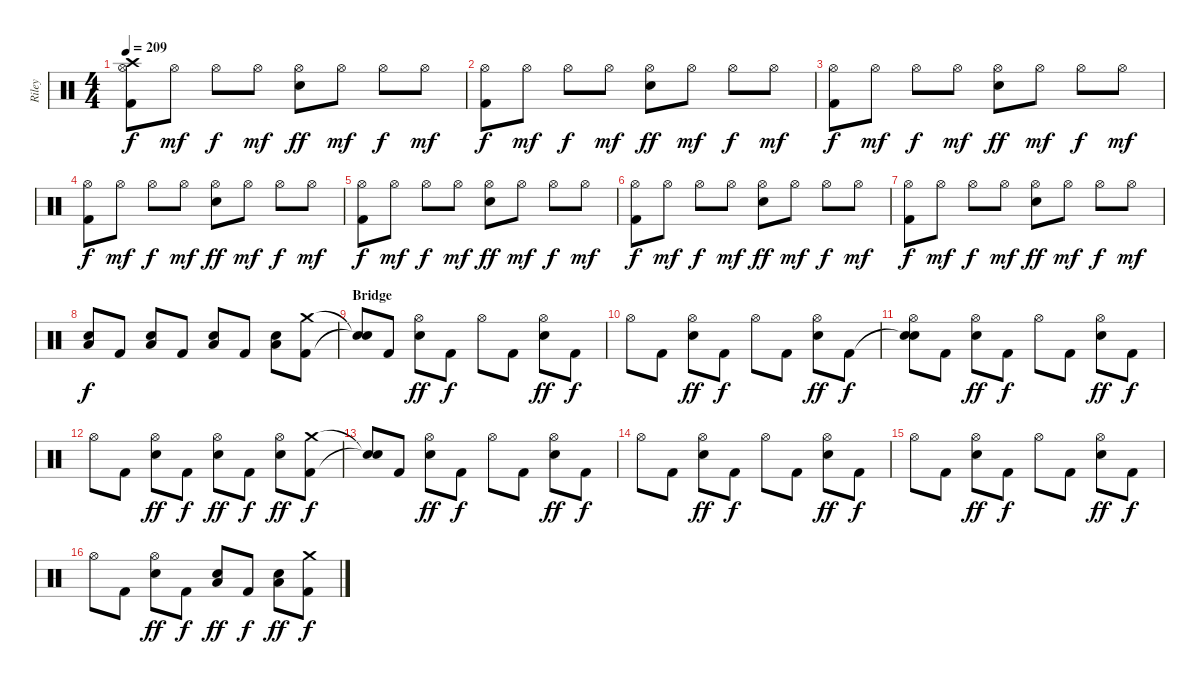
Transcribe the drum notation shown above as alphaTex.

\track ("Riley" "Riley") {instrument percussion}
\staff {score}
\articulation defaults
\ts (4 4)
\tempo 209
\clef neutral
\ks c
("Crash high (hit)" "Hi-Hat (open)" "Kick (hit) 2").8{dy f} "Hi-Hat (open)".8{dy mf} "Hi-Hat (open)".8{dy f} "Hi-Hat (open)".8{dy mf} ("Hi-Hat (open)" "Electric Snare (hit)").8{dy ff} "Hi-Hat (open)".8{dy mf} "Hi-Hat (open)".8{dy f} "Hi-Hat (open)".8{dy mf} |
("Hi-Hat (open)" "Kick (hit) 2").8{dy f} "Hi-Hat (open)".8{dy mf} "Hi-Hat (open)".8{dy f} "Hi-Hat (open)".8{dy mf} ("Hi-Hat (open)" "Electric Snare (hit)").8{dy ff} "Hi-Hat (open)".8{dy mf} "Hi-Hat (open)".8{dy f} "Hi-Hat (open)".8{dy mf} |
("Hi-Hat (open)" "Kick (hit) 2").8{dy f} "Hi-Hat (open)".8{dy mf} "Hi-Hat (open)".8{dy f} "Hi-Hat (open)".8{dy mf} ("Hi-Hat (open)" "Electric Snare (hit)").8{dy ff} "Hi-Hat (open)".8{dy mf} "Hi-Hat (open)".8{dy f} "Hi-Hat (open)".8{dy mf} |
("Hi-Hat (open)" "Kick (hit) 2").8{dy f} "Hi-Hat (open)".8{dy mf} "Hi-Hat (open)".8{dy f} "Hi-Hat (open)".8{dy mf} ("Hi-Hat (open)" "Electric Snare (hit)").8{dy ff} "Hi-Hat (open)".8{dy mf} "Hi-Hat (open)".8{dy f} "Hi-Hat (open)".8{dy mf} |
("Hi-Hat (open)" "Kick (hit) 2").8{dy f} "Hi-Hat (open)".8{dy mf} "Hi-Hat (open)".8{dy f} "Hi-Hat (open)".8{dy mf} ("Hi-Hat (open)" "Electric Snare (hit)").8{dy ff} "Hi-Hat (open)".8{dy mf} "Hi-Hat (open)".8{dy f} "Hi-Hat (open)".8{dy mf} |
("Hi-Hat (open)" "Kick (hit) 2").8{dy f} "Hi-Hat (open)".8{dy mf} "Hi-Hat (open)".8{dy f} "Hi-Hat (open)".8{dy mf} ("Hi-Hat (open)" "Electric Snare (hit)").8{dy ff} "Hi-Hat (open)".8{dy mf} "Hi-Hat (open)".8{dy f} "Hi-Hat (open)".8{dy mf} |
("Hi-Hat (open)" "Kick (hit) 2").8{dy f} "Hi-Hat (open)".8{dy mf} "Hi-Hat (open)".8{dy f} "Hi-Hat (open)".8{dy mf} ("Hi-Hat (open)" "Electric Snare (hit)").8{dy ff} "Hi-Hat (open)".8{dy mf} "Hi-Hat (open)".8{dy f} "Hi-Hat (open)".8{dy mf} |
("Low Tom (hit)" "Electric Snare (hit)").8{dy f} "Kick (hit) 2".8 ("Low Tom (hit)" "Electric Snare (hit)").8 "Kick (hit) 2".8 ("Low Tom (hit)" "Electric Snare (hit)").8 "Kick (hit) 2".8 ("Low Tom (hit)" "Electric Snare (hit)").8 ("Crash medium (hit)" "Kick (hit) 2").8 |
\section ("" "Bridge")
("Snare (hit)"{t} "Snare (hit)"{t}).8 "Kick (hit) 2".8 ("Hi-Hat (open)" "Electric Snare (hit)").8{dy ff} "Kick (hit) 2".8{dy f} "Hi-Hat (open)".8 "Kick (hit) 2".8 ("Hi-Hat (open)" "Electric Snare (hit)").8{dy ff} "Kick (hit) 2".8{dy f} |
"Hi-Hat (open)".8 "Kick (hit) 2".8 ("Hi-Hat (open)" "Electric Snare (hit)").8{dy ff} "Kick (hit) 2".8{dy f} "Hi-Hat (open)".8 "Kick (hit) 2".8 ("Hi-Hat (open)" "Electric Snare (hit)").8{dy ff} "Kick (hit) 2".8{dy f} |
("Snare (hit)"{t} "Hi-Hat (open)" "Snare (hit)").8 "Kick (hit) 2".8 ("Hi-Hat (open)" "Electric Snare (hit)").8{dy ff} "Kick (hit) 2".8{dy f} "Hi-Hat (open)".8 "Kick (hit) 2".8 ("Hi-Hat (open)" "Electric Snare (hit)").8{dy ff} "Kick (hit) 2".8{dy f} |
"Hi-Hat (open)".8 "Kick (hit) 2".8 ("Hi-Hat (open)" "Electric Snare (hit)").8{dy ff} "Kick (hit) 2".8{dy f} ("Hi-Hat (open)" "Electric Snare (hit)").8{dy ff} "Kick (hit) 2".8{dy f} ("Hi-Hat (open)" "Electric Snare (hit)").8{dy ff} ("Crash medium (hit)" "Kick (hit) 2").8{dy f} |
("Snare (hit)"{t} "Snare (hit)"{t}).8 "Kick (hit) 2".8 ("Hi-Hat (open)" "Electric Snare (hit)").8{dy ff} "Kick (hit) 2".8{dy f} "Hi-Hat (open)".8 "Kick (hit) 2".8 ("Hi-Hat (open)" "Electric Snare (hit)").8{dy ff} "Kick (hit) 2".8{dy f} |
"Hi-Hat (open)".8 "Kick (hit) 2".8 ("Hi-Hat (open)" "Electric Snare (hit)").8{dy ff} "Kick (hit) 2".8{dy f} "Hi-Hat (open)".8 "Kick (hit) 2".8 ("Hi-Hat (open)" "Electric Snare (hit)").8{dy ff} "Kick (hit) 2".8{dy f} |
"Hi-Hat (open)".8 "Kick (hit) 2".8 ("Hi-Hat (open)" "Electric Snare (hit)").8{dy ff} "Kick (hit) 2".8{dy f} "Hi-Hat (open)".8 "Kick (hit) 2".8 ("Hi-Hat (open)" "Electric Snare (hit)").8{dy ff} "Kick (hit) 2".8{dy f} |
"Hi-Hat (open)".8 "Kick (hit) 2".8 ("Hi-Hat (open)" "Electric Snare (hit)").8{dy ff} "Kick (hit) 2".8{dy f} ("Low Floor Tom (hit)" "Electric Snare (hit)").8{dy ff} "Kick (hit) 2".8{dy f} ("Low Floor Tom (hit)" "Electric Snare (hit)").8{dy ff} ("Crash medium (hit)" "Kick (hit) 2").8{dy f}
